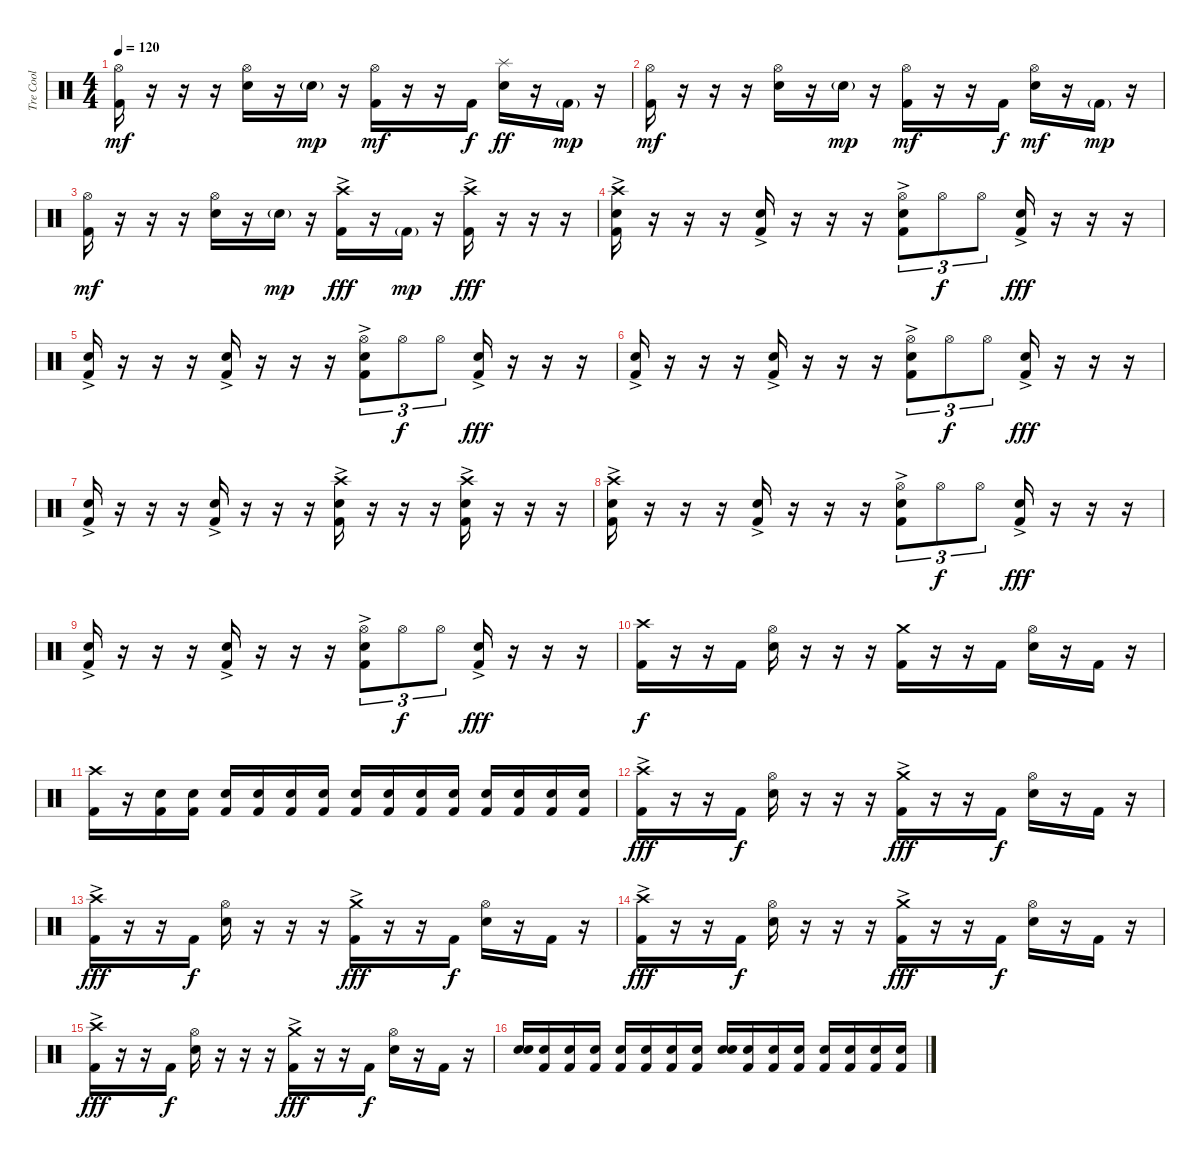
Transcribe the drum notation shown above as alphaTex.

\track ("Tre Cool" "Tre Cool") {instrument percussion}
\staff {score}
\articulation defaults
\ts (4 4)
\tempo 120
\clef neutral
\ks c
("Hi-Hat (open)" "Kick (hit) 2").16{dy mf} r.16 r.16 r.16 ("Hi-Hat (open)" "Electric Snare (hit)").16 r.16 "Electric Snare (hit)"{g}.16{dy mp} r.16 ("Hi-Hat (open)" "Kick (hit) 2").16{dy mf} r.16 r.16 "Kick (hit) 2".16{dy f} ("Splash (hit)" "Electric Snare (hit)").16{dy ff} r.16 "Kick (hit) 2"{g}.16{dy mp} r.16 |
("Hi-Hat (open)" "Kick (hit) 2").16{dy mf} r.16 r.16 r.16 ("Hi-Hat (open)" "Electric Snare (hit)").16 r.16 "Electric Snare (hit)"{g}.16{dy mp} r.16 ("Hi-Hat (open)" "Kick (hit) 2").16{dy mf} r.16 r.16 "Kick (hit) 2".16{dy f} ("Hi-Hat (open)" "Electric Snare (hit)").16{dy mf} r.16 "Kick (hit) 2"{g}.16{dy mp} r.16 |
("Hi-Hat (open)" "Kick (hit) 2").16{dy mf} r.16 r.16 r.16 ("Hi-Hat (open)" "Electric Snare (hit)").16 r.16 "Electric Snare (hit)"{g}.16{dy mp} r.16 ("Crash high (hit)"{ac} "Kick (hit) 2"{ac}).16{dy fff} r.16 "Kick (hit) 2"{g}.16{dy mp} r.16 ("Crash high (hit)"{ac} "Kick (hit) 2"{ac}).16{dy fff} r.16 r.16 r.16 |
("Crash high (hit)"{ac} "Electric Snare (hit)"{ac} "Kick (hit) 2"{ac}).16 r.16 r.16 r.16 ("Electric Snare (hit)"{ac} "Kick (hit) 2"{ac}).16 r.16 r.16 r.16 ("Hi-Hat (open)" "Electric Snare (hit)"{ac} "Kick (hit) 2"{ac}).8{tu (3 2)} "Hi-Hat (open)".8{tu (3 2) dy f} "Hi-Hat (open)".8{tu (3 2)} ("Electric Snare (hit)"{ac} "Kick (hit) 2"{ac}).16{dy fff} r.16 r.16 r.16 |
("Electric Snare (hit)"{ac} "Kick (hit) 2"{ac}).16 r.16 r.16 r.16 ("Electric Snare (hit)"{ac} "Kick (hit) 2"{ac}).16 r.16 r.16 r.16 ("Hi-Hat (open)" "Electric Snare (hit)"{ac} "Kick (hit) 2"{ac}).8{tu (3 2)} "Hi-Hat (open)".8{tu (3 2) dy f} "Hi-Hat (open)".8{tu (3 2)} ("Electric Snare (hit)"{ac} "Kick (hit) 2"{ac}).16{dy fff} r.16 r.16 r.16 |
("Electric Snare (hit)"{ac} "Kick (hit) 2"{ac}).16 r.16 r.16 r.16 ("Electric Snare (hit)"{ac} "Kick (hit) 2"{ac}).16 r.16 r.16 r.16 ("Hi-Hat (open)" "Electric Snare (hit)"{ac} "Kick (hit) 2"{ac}).8{tu (3 2)} "Hi-Hat (open)".8{tu (3 2) dy f} "Hi-Hat (open)".8{tu (3 2)} ("Electric Snare (hit)"{ac} "Kick (hit) 2"{ac}).16{dy fff} r.16 r.16 r.16 |
("Electric Snare (hit)"{ac} "Kick (hit) 2"{ac}).16 r.16 r.16 r.16 ("Electric Snare (hit)"{ac} "Kick (hit) 2"{ac}).16 r.16 r.16 r.16 ("Crash high (hit)"{ac} "Electric Snare (hit)"{ac} "Kick (hit) 2"{ac}).16 r.16 r.16 r.16 ("Crash high (hit)"{ac} "Electric Snare (hit)"{ac} "Kick (hit) 2"{ac}).16 r.16 r.16 r.16 |
("Crash high (hit)"{ac} "Electric Snare (hit)"{ac} "Kick (hit) 2"{ac}).16 r.16 r.16 r.16 ("Electric Snare (hit)"{ac} "Kick (hit) 2"{ac}).16 r.16 r.16 r.16 ("Hi-Hat (open)" "Electric Snare (hit)"{ac} "Kick (hit) 2"{ac}).8{tu (3 2)} "Hi-Hat (open)".8{tu (3 2) dy f} "Hi-Hat (open)".8{tu (3 2)} ("Electric Snare (hit)"{ac} "Kick (hit) 2"{ac}).16{dy fff} r.16 r.16 r.16 |
("Electric Snare (hit)"{ac} "Kick (hit) 2"{ac}).16 r.16 r.16 r.16 ("Electric Snare (hit)"{ac} "Kick (hit) 2"{ac}).16 r.16 r.16 r.16 ("Hi-Hat (open)" "Electric Snare (hit)"{ac} "Kick (hit) 2"{ac}).8{tu (3 2)} "Hi-Hat (open)".8{tu (3 2) dy f} "Hi-Hat (open)".8{tu (3 2)} ("Electric Snare (hit)"{ac} "Kick (hit) 2"{ac}).16{dy fff} r.16 r.16 r.16 |
("Crash high (hit)" "Kick (hit) 2").16{dy f} r.16 r.16 "Kick (hit) 2".16 ("Hi-Hat (open)" "Electric Snare (hit)").16 r.16 r.16 r.16 ("Crash medium (hit)" "Kick (hit) 2").16 r.16 r.16 "Kick (hit) 2".16 ("Hi-Hat (open)" "Electric Snare (hit)").16 r.16 "Kick (hit) 2".16 r.16 |
("Crash high (hit)" "Kick (hit) 2").16 r.16 ("Electric Snare (hit)" "Kick (hit) 2").16 ("Electric Snare (hit)" "Kick (hit) 2").16 ("Electric Snare (hit)" "Kick (hit) 2").16 ("Electric Snare (hit)" "Kick (hit) 2").16 ("Electric Snare (hit)" "Kick (hit) 2").16 ("Electric Snare (hit)" "Kick (hit) 2").16 ("Electric Snare (hit)" "Kick (hit) 2").16 ("Electric Snare (hit)" "Kick (hit) 2").16 ("Electric Snare (hit)" "Kick (hit) 2").16 ("Electric Snare (hit)" "Kick (hit) 2").16 ("Electric Snare (hit)" "Kick (hit) 2").16 ("Electric Snare (hit)" "Kick (hit) 2").16 ("Electric Snare (hit)" "Kick (hit) 2").16 ("Electric Snare (hit)" "Kick (hit) 2").16 |
("Crash high (hit)"{ac} "Kick (hit) 2").16{dy fff} r.16 r.16 "Kick (hit) 2".16{dy f} ("Hi-Hat (open)" "Electric Snare (hit)").16 r.16 r.16 r.16 ("Crash medium (hit)"{ac} "Kick (hit) 2").16{dy fff} r.16 r.16 "Kick (hit) 2".16{dy f} ("Hi-Hat (open)" "Electric Snare (hit)").16 r.16 "Kick (hit) 2".16 r.16 |
("Crash high (hit)"{ac} "Kick (hit) 2").16{dy fff} r.16 r.16 "Kick (hit) 2".16{dy f} ("Hi-Hat (open)" "Electric Snare (hit)").16 r.16 r.16 r.16 ("Crash medium (hit)"{ac} "Kick (hit) 2").16{dy fff} r.16 r.16 "Kick (hit) 2".16{dy f} ("Hi-Hat (open)" "Electric Snare (hit)").16 r.16 "Kick (hit) 2".16 r.16 |
("Crash high (hit)"{ac} "Kick (hit) 2").16{dy fff} r.16 r.16 "Kick (hit) 2".16{dy f} ("Hi-Hat (open)" "Electric Snare (hit)").16 r.16 r.16 r.16 ("Crash medium (hit)"{ac} "Kick (hit) 2").16{dy fff} r.16 r.16 "Kick (hit) 2".16{dy f} ("Hi-Hat (open)" "Electric Snare (hit)").16 r.16 "Kick (hit) 2".16 r.16 |
("Crash high (hit)"{ac} "Kick (hit) 2").16{dy fff} r.16 r.16 "Kick (hit) 2".16{dy f} ("Hi-Hat (open)" "Electric Snare (hit)").16 r.16 r.16 r.16 ("Crash medium (hit)"{ac} "Kick (hit) 2").16{dy fff} r.16 r.16 "Kick (hit) 2".16{dy f} ("Hi-Hat (open)" "Electric Snare (hit)").16 r.16 "Kick (hit) 2".16 r.16 |
("Electric Snare (hit)" "Electric Snare (hit)").16 ("Electric Snare (hit)" "Kick (hit) 2").16 ("Electric Snare (hit)" "Kick (hit) 2").16 ("Electric Snare (hit)" "Kick (hit) 2").16 ("Electric Snare (hit)" "Kick (hit) 2").16 ("Electric Snare (hit)" "Kick (hit) 2").16 ("Electric Snare (hit)" "Kick (hit) 2").16 ("Electric Snare (hit)" "Kick (hit) 2").16 ("Electric Snare (hit)" "Electric Snare (hit)").16 ("Electric Snare (hit)" "Kick (hit) 2").16 ("Electric Snare (hit)" "Kick (hit) 2").16 ("Electric Snare (hit)" "Kick (hit) 2").16 ("Electric Snare (hit)" "Kick (hit) 2").16 ("Electric Snare (hit)" "Kick (hit) 2").16 ("Electric Snare (hit)" "Kick (hit) 2").16 ("Electric Snare (hit)" "Kick (hit) 2").16
